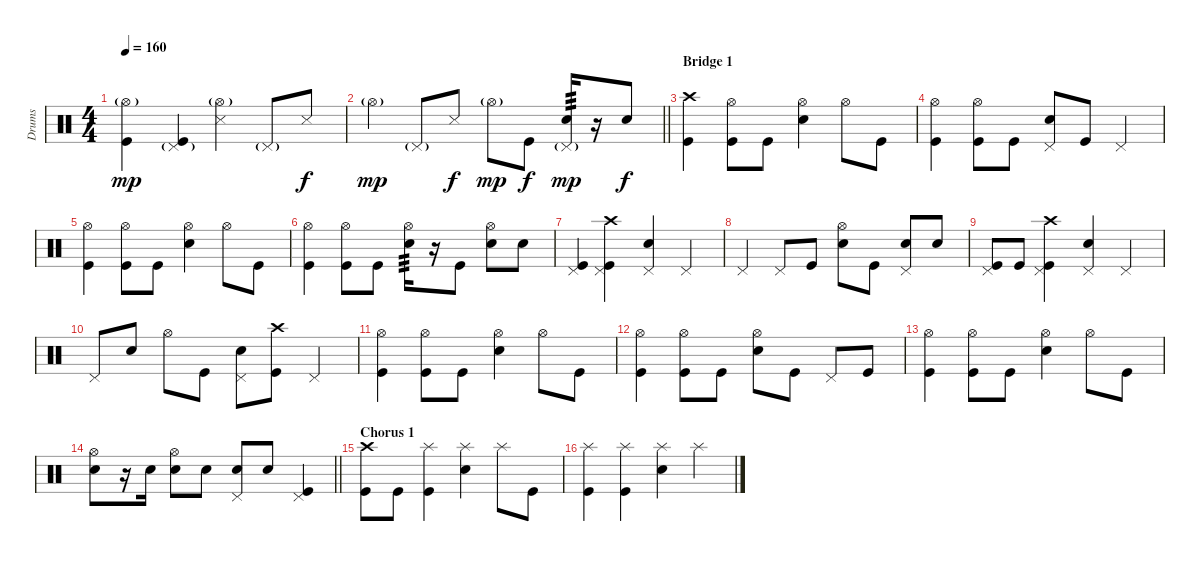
\track ("Drums" "Drums") {instrument percussion}
\staff {score}
\articulation defaults
\ts (4 4)
\tempo 160
\clef neutral
\ks c
("Hi-Hat (open)"{g} "Kick (hit)").4{dy mp} ("Pedal Hi-Hat (hit)"{g} "Kick (hit)").4 ("Hi-Hat (open)"{g} "Snare (side stick) 3").4 "Pedal Hi-Hat (hit)"{g}.8 "Snare (side stick) 3".8{dy f} |
\barLineRight lightlight "Hi-Hat (open)"{g}.4{dy mp} "Pedal Hi-Hat (hit)"{g}.8 "Snare (side stick) 3".8{dy f} "Hi-Hat (open)"{g}.8{dy mp} "Kick (hit)".8{dy f}
("Pedal Hi-Hat (hit)"{g} "Snare (hit) 2").16{tp 3 dy mp} r.16 "Snare (hit) 2".8{dy f} |
\section ("" "Bridge 1")
("Crash high (hit)" "Kick (hit)").4 ("Hi-Hat (open)" "Kick (hit)").8 "Kick (hit)".8 ("Hi-Hat (open)" "Snare (hit) 2").4 "Hi-Hat (open)".8 "Kick (hit)".8 |
("Hi-Hat (open)" "Kick (hit)").4 ("Hi-Hat (open)" "Kick (hit)").8 "Kick (hit)".8 ("Pedal Hi-Hat (hit)" "Snare (hit) 2").8 "Kick (hit)".8 "Pedal Hi-Hat (hit)".4 |
("Hi-Hat (open)" "Kick (hit)").4 ("Hi-Hat (open)" "Kick (hit)").8 "Kick (hit)".8 ("Hi-Hat (open)" "Snare (hit) 2").4 "Hi-Hat (open)".8 "Kick (hit)".8 |
("Hi-Hat (open)" "Kick (hit)").4 ("Hi-Hat (open)" "Kick (hit)").8 "Kick (hit)".8 ("Hi-Hat (open)" "Snare (hit) 2").16{tp 3} r.16 "Kick (hit)".8 ("Hi-Hat (open)" "Snare (hit) 2").8 "Snare (hit) 2".8 |
("Pedal Hi-Hat (hit)" "Kick (hit)").4 ("Pedal Hi-Hat (hit)" "Crash high (hit)" "Kick (hit)").4 ("Pedal Hi-Hat (hit)" "Snare (hit) 2").4 "Pedal Hi-Hat (hit)".4 |
"Pedal Hi-Hat (hit)".4 "Pedal Hi-Hat (hit)".8 "Kick (hit)".8 ("Hi-Hat (open)" "Snare (hit) 2").8 "Kick (hit)".8 ("Pedal Hi-Hat (hit)" "Snare (hit) 2").8 "Snare (hit) 2".8 |
("Pedal Hi-Hat (hit)" "Kick (hit)").8 "Kick (hit)".8 ("Pedal Hi-Hat (hit)" "Crash high (hit)" "Kick (hit)").4 ("Pedal Hi-Hat (hit)" "Snare (hit) 2").4 "Pedal Hi-Hat (hit)".4 |
"Pedal Hi-Hat (hit)".8 "Snare (hit) 2".8 "Hi-Hat (open)".8 "Kick (hit)".8 ("Pedal Hi-Hat (hit)" "Snare (hit) 2").8 ("Crash high (hit)" "Kick (hit)").8 "Pedal Hi-Hat (hit)".4 |
("Hi-Hat (open)" "Kick (hit)").4 ("Hi-Hat (open)" "Kick (hit)").8 "Kick (hit)".8 ("Hi-Hat (open)" "Snare (hit) 2").4 "Hi-Hat (open)".8 "Kick (hit)".8 |
("Hi-Hat (open)" "Kick (hit)").4 ("Hi-Hat (open)" "Kick (hit)").8 "Kick (hit)".8 ("Hi-Hat (open)" "Snare (hit) 2").8 "Kick (hit)".8 "Pedal Hi-Hat (hit)".8 "Kick (hit)".8 |
("Hi-Hat (open)" "Kick (hit)").4 ("Hi-Hat (open)" "Kick (hit)").8 "Kick (hit)".8 ("Hi-Hat (open)" "Snare (hit) 2").4 "Hi-Hat (open)".8 "Kick (hit)".8 |
\barLineRight lightlight
("Hi-Hat (open)" "Snare (hit) 2").8 r.16 "Snare (hit) 2".16 ("Hi-Hat (open)" "Snare (hit) 2").8 "Snare (hit) 2".8 ("Pedal Hi-Hat (hit)" "Snare (hit) 2").8 "Snare (hit) 2".8 ("Pedal Hi-Hat (hit)" "Kick (hit)").4 |
\section ("" "Chorus 1")
("Crash high (hit)" "Kick (hit)").8 "Kick (hit)".8 ("Splash (hit)" "Kick (hit)").4 ("Splash (hit)" "Snare (hit) 2").4 "Splash (hit)".8 "Kick (hit)".8 |
("Splash (hit)" "Kick (hit)").4 ("Splash (hit)" "Kick (hit)").4 ("Splash (hit)" "Snare (hit) 2").4 "Splash (hit)".4
